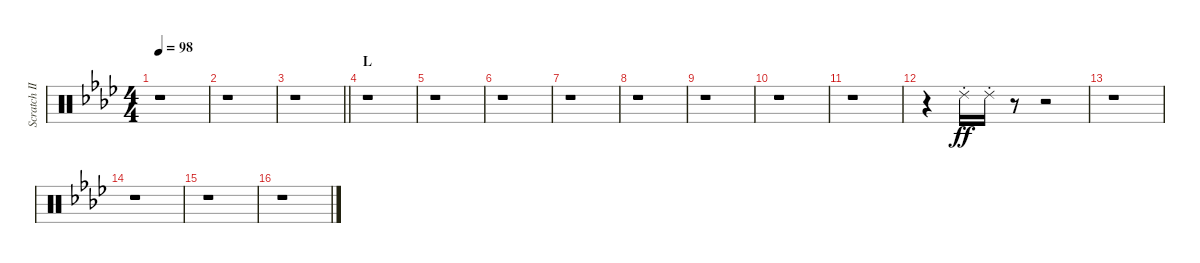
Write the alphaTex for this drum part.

\track ("Scratch II" "Scratch II") {instrument percussion}
\staff {score}
\articulation defaults
\ts (4 4)
\tempo 98
\clef neutral
\ks ab
r.1{dy ff} |
r.1 |
\barLineRight lightlight
r.1 |
\section ("" "L")
r.1 |
r.1 |
r.1 |
r.1 |
r.1 |
r.1 |
r.1 |
r.1 |
r.4 "Ride (choke) 2".16 "Ride (choke) 2".16 r.8 r.2 |
r.1 |
r.1 |
r.1 |
r.1
